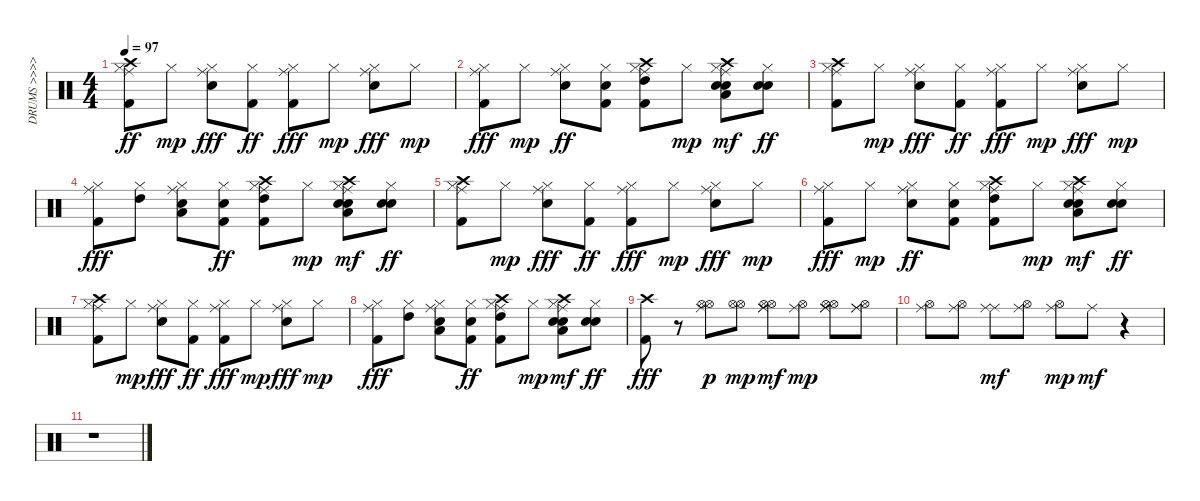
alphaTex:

\track ("DRUMS >>>>>>" "DRUMS >>>>") {instrument percussion}
\staff {score}
\articulation defaults
\ts (4 4)
\tempo 97
\clef neutral
\ks c
("Hi-Hat (closed)" "Ride (middle)" "Kick (hit) 2" "Crash high (hit)").8{dy ff} "Hi-Hat (closed)".8{dy mp} ("Hi-Hat (closed)" "Ride (middle)" "Snare (hit) 2").8{dy fff} ("Hi-Hat (closed)" "Kick (hit) 2").8{dy ff} ("Hi-Hat (closed)" "Ride (middle)" "Kick (hit) 2").8{dy fff} "Hi-Hat (closed)".8{dy mp} ("Hi-Hat (closed)" "Ride (middle)" "Snare (hit) 2").8{dy fff} "Hi-Hat (closed)".8{dy mp} |
("Hi-Hat (closed)" "Ride (middle)" "Kick (hit) 2").8{dy fff} "Hi-Hat (closed)".8{dy mp} ("Hi-Hat (closed)" "Ride (middle)" "Snare (hit) 2").8{dy ff} ("Hi-Hat (closed)" "Kick (hit) 2" "Snare (hit) 2").8 ("Hi-Hat (closed)" "Ride (middle)" "Kick (hit) 2" "Crash high (hit)" "High Tom (hit)").8 "Hi-Hat (closed)".8{dy mp} ("Hi-Hat (closed)" "Ride (middle)" "Snare (hit) 2" "Crash high (hit)" "Low Tom (hit)" "Snare (hit) 2").8{dy mf} ("Hi-Hat (closed)" "Snare (hit) 2" "Snare (hit) 2").8{dy ff} |
("Hi-Hat (closed)" "Ride (middle)" "Kick (hit) 2" "Crash high (hit)").8 "Hi-Hat (closed)".8{dy mp} ("Hi-Hat (closed)" "Ride (middle)" "Snare (hit) 2").8{dy fff} ("Hi-Hat (closed)" "Kick (hit) 2").8{dy ff} ("Hi-Hat (closed)" "Ride (middle)" "Kick (hit) 2").8{dy fff} "Hi-Hat (closed)".8{dy mp} ("Hi-Hat (closed)" "Ride (middle)" "Snare (hit) 2").8{dy fff} "Hi-Hat (closed)".8{dy mp} |
("Hi-Hat (closed)" "Ride (middle)" "Kick (hit) 2").8{dy fff} ("Hi-Hat (closed)" "High Tom (hit)").8 ("Hi-Hat (closed)" "Ride (middle)" "Snare (hit) 2" "Low Tom (hit)").8 ("Hi-Hat (closed)" "Kick (hit) 2" "Snare (hit) 2").8{dy ff} ("Hi-Hat (closed)" "Ride (middle)" "Kick (hit) 2" "Crash high (hit)" "High Tom (hit)").8 "Hi-Hat (closed)".8{dy mp} ("Hi-Hat (closed)" "Ride (middle)" "Snare (hit) 2" "Crash high (hit)" "Low Tom (hit)" "Snare (hit) 2").8{dy mf} ("Hi-Hat (closed)" "Snare (hit) 2" "Snare (hit) 2").8{dy ff} |
("Hi-Hat (closed)" "Ride (middle)" "Kick (hit) 2" "Crash high (hit)").8 "Hi-Hat (closed)".8{dy mp} ("Hi-Hat (closed)" "Ride (middle)" "Snare (hit) 2").8{dy fff} ("Hi-Hat (closed)" "Kick (hit) 2").8{dy ff} ("Hi-Hat (closed)" "Ride (middle)" "Kick (hit) 2").8{dy fff} "Hi-Hat (closed)".8{dy mp} ("Hi-Hat (closed)" "Ride (middle)" "Snare (hit) 2").8{dy fff} "Hi-Hat (closed)".8{dy mp} |
("Hi-Hat (closed)" "Ride (middle)" "Kick (hit) 2").8{dy fff} "Hi-Hat (closed)".8{dy mp} ("Hi-Hat (closed)" "Ride (middle)" "Snare (hit) 2").8{dy ff} ("Hi-Hat (closed)" "Kick (hit) 2" "Snare (hit) 2").8 ("Hi-Hat (closed)" "Ride (middle)" "Kick (hit) 2" "Crash high (hit)" "High Tom (hit)").8 "Hi-Hat (closed)".8{dy mp} ("Hi-Hat (closed)" "Ride (middle)" "Snare (hit) 2" "Crash high (hit)" "Low Tom (hit)" "Snare (hit) 2").8{dy mf} ("Hi-Hat (closed)" "Snare (hit) 2" "Snare (hit) 2").8{dy ff} |
("Hi-Hat (closed)" "Ride (middle)" "Kick (hit) 2" "Crash high (hit)").8 "Hi-Hat (closed)".8{dy mp} ("Hi-Hat (closed)" "Ride (middle)" "Snare (hit) 2").8{dy fff} ("Hi-Hat (closed)" "Kick (hit) 2").8{dy ff} ("Hi-Hat (closed)" "Ride (middle)" "Kick (hit) 2").8{dy fff} "Hi-Hat (closed)".8{dy mp} ("Hi-Hat (closed)" "Ride (middle)" "Snare (hit) 2").8{dy fff} "Hi-Hat (closed)".8{dy mp} |
("Hi-Hat (closed)" "Ride (middle)" "Kick (hit) 2").8{dy fff} ("Hi-Hat (closed)" "High Tom (hit)").8 ("Hi-Hat (closed)" "Ride (middle)" "Snare (hit) 2" "Low Tom (hit)").8 ("Hi-Hat (closed)" "Kick (hit) 2" "Snare (hit) 2").8{dy ff} ("Hi-Hat (closed)" "Ride (middle)" "Kick (hit) 2" "Crash high (hit)" "High Tom (hit)").8 "Hi-Hat (closed)".8{dy mp} ("Hi-Hat (closed)" "Ride (middle)" "Snare (hit) 2" "Crash high (hit)" "Low Tom (hit)" "Snare (hit) 2").8{dy mf} ("Hi-Hat (closed)" "Snare (hit) 2" "Snare (hit) 2").8{dy ff} |
("Crash high (hit)" "Kick (hit) 2").8{dy fff} r.8 ("Hi-Hat (open)" "Ride (middle)" "Hi-Hat (open)").8{dy p} ("Hi-Hat (open)" "Hi-Hat (open)").8{dy mp} ("Ride (middle)" "Hi-Hat (open)" "Ride (middle)" "Hi-Hat (open)").8{dy mf} ("Ride (middle)" "Hi-Hat (open)").8{dy mp} ("Ride (middle)" "Hi-Hat (open)" "Ride (middle)" "Hi-Hat (open)").8 ("Ride (middle)" "Hi-Hat (open)" "Ride (middle)").8 |
("Hi-Hat (open)" "Ride (middle)").8 ("Ride (middle)" "Hi-Hat (open)").8 ("Ride (middle)" "Ride (middle)").8{dy mf} ("Hi-Hat (open)" "Ride (middle)").8 ("Ride (middle)" "Hi-Hat (open)").8{dy mp} "Ride (middle)".8{dy mf} r.4 |
r.1
